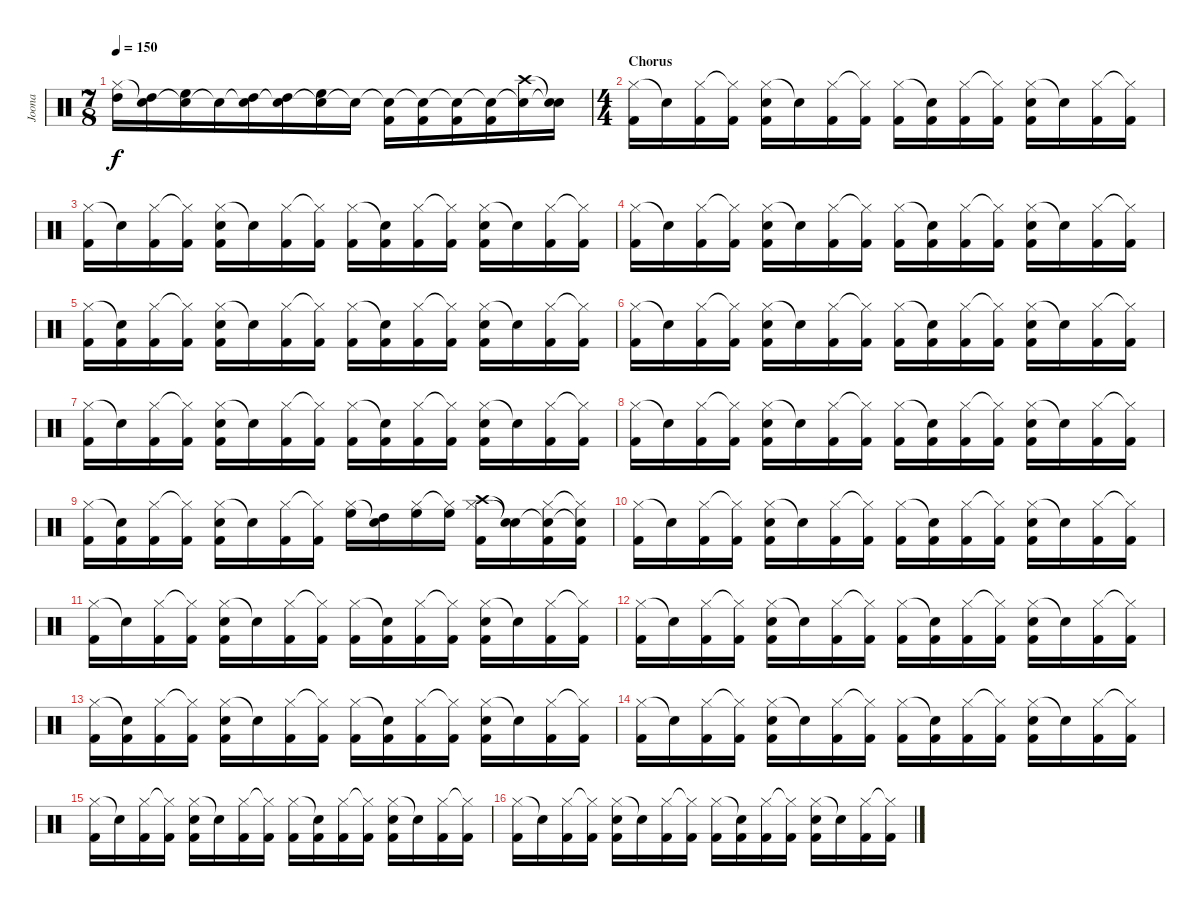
\track ("Joona" "Joona") {instrument percussion}
\staff {score}
\articulation defaults
\ts (7 8)
\tempo 150
\clef neutral
\ks c
("Hi-Hat (closed)" "High Tom (hit)").16{dy f} ("Snare (hit)"{t} "High Tom (hit)").16 ("Snare (hit)"{t} "High Floor Tom (hit)").16 "Snare (hit)"{t}.16 ("Snare (hit)"{t} "High Tom (hit)").16 ("Snare (hit)"{t} "High Tom (hit)").16 ("Snare (hit)"{t} "High Floor Tom (hit)").16 "Snare (hit)"{t}.16 ("Snare (hit)"{t} "Kick (hit) 2").16 ("Snare (hit)"{t} "Kick (hit) 2").16 ("Snare (hit)"{t} "Kick (hit) 2").16 ("Snare (hit)"{t} "Kick (hit) 2").16 ("Snare (hit)"{t} "Crash high (hit)").16 ("Snare (hit)"{t} "Snare (hit)"{t}).16 |
\ts (4 4)
\section ("" "Chorus")
("Hi-Hat (closed)" "Kick (hit) 2").16 "Snare (hit)"{t}.16 ("Hi-Hat (closed)" "Kick (hit) 2").16 ("Hi-Hat (closed)"{t} "Kick (hit) 2").16 ("Hi-Hat (closed)" "Kick (hit) 2" "Snare (hit) 2").16 "Snare (hit)"{t}.16 ("Hi-Hat (closed)" "Kick (hit) 2").16 ("Hi-Hat (closed)"{t} "Kick (hit) 2").16 ("Hi-Hat (closed)" "Kick (hit) 2").16 ("Snare (hit)"{t} "Kick (hit) 2").16 ("Hi-Hat (closed)" "Kick (hit) 2").16 ("Hi-Hat (closed)"{t} "Kick (hit) 2").16 ("Hi-Hat (closed)" "Kick (hit) 2" "Snare (hit) 2").16 "Snare (hit)"{t}.16 ("Hi-Hat (closed)" "Kick (hit) 2").16 ("Hi-Hat (closed)"{t} "Kick (hit) 2").16 |
("Hi-Hat (closed)" "Kick (hit) 2").16 "Snare (hit)"{t}.16 ("Hi-Hat (closed)" "Kick (hit) 2").16 ("Hi-Hat (closed)"{t} "Kick (hit) 2").16 ("Hi-Hat (closed)" "Kick (hit) 2" "Snare (hit) 2").16 "Snare (hit)"{t}.16 ("Hi-Hat (closed)" "Kick (hit) 2").16 ("Hi-Hat (closed)"{t} "Kick (hit) 2").16 ("Hi-Hat (closed)" "Kick (hit) 2").16 ("Snare (hit)"{t} "Kick (hit) 2").16 ("Hi-Hat (closed)" "Kick (hit) 2").16 ("Hi-Hat (closed)"{t} "Kick (hit) 2").16 ("Hi-Hat (closed)" "Kick (hit) 2" "Snare (hit) 2").16 "Snare (hit)"{t}.16 ("Hi-Hat (closed)" "Kick (hit) 2").16 ("Hi-Hat (closed)"{t} "Kick (hit) 2").16 |
("Hi-Hat (closed)" "Kick (hit) 2").16 "Snare (hit)"{t}.16 ("Hi-Hat (closed)" "Kick (hit) 2").16 ("Hi-Hat (closed)"{t} "Kick (hit) 2").16 ("Hi-Hat (closed)" "Kick (hit) 2" "Snare (hit) 2").16 "Snare (hit)"{t}.16 ("Hi-Hat (closed)" "Kick (hit) 2").16 ("Hi-Hat (closed)"{t} "Kick (hit) 2").16 ("Hi-Hat (closed)" "Kick (hit) 2").16 ("Snare (hit)"{t} "Kick (hit) 2").16 ("Hi-Hat (closed)" "Kick (hit) 2").16 ("Hi-Hat (closed)"{t} "Kick (hit) 2").16 ("Hi-Hat (closed)" "Kick (hit) 2" "Snare (hit) 2").16 "Snare (hit)"{t}.16 ("Hi-Hat (closed)" "Kick (hit) 2").16 ("Hi-Hat (closed)"{t} "Kick (hit) 2").16 |
("Hi-Hat (closed)" "Kick (hit) 2").16 ("Snare (hit)"{t} "Kick (hit) 2").16 ("Hi-Hat (closed)" "Kick (hit) 2").16 ("Hi-Hat (closed)"{t} "Kick (hit) 2").16 ("Hi-Hat (closed)" "Kick (hit) 2" "Snare (hit) 2").16 "Snare (hit)"{t}.16 ("Hi-Hat (closed)" "Kick (hit) 2").16 ("Hi-Hat (closed)"{t} "Kick (hit) 2").16 ("Hi-Hat (closed)" "Kick (hit) 2").16 ("Snare (hit)"{t} "Kick (hit) 2").16 ("Hi-Hat (closed)" "Kick (hit) 2").16 ("Hi-Hat (closed)"{t} "Kick (hit) 2").16 ("Hi-Hat (closed)" "Kick (hit) 2" "Snare (hit) 2").16 "Snare (hit)"{t}.16 ("Hi-Hat (closed)" "Kick (hit) 2").16 ("Hi-Hat (closed)"{t} "Kick (hit) 2").16 |
("Hi-Hat (closed)" "Kick (hit) 2").16 "Snare (hit)"{t}.16 ("Hi-Hat (closed)" "Kick (hit) 2").16 ("Hi-Hat (closed)"{t} "Kick (hit) 2").16 ("Hi-Hat (closed)" "Kick (hit) 2" "Snare (hit) 2").16 "Snare (hit)"{t}.16 ("Hi-Hat (closed)" "Kick (hit) 2").16 ("Hi-Hat (closed)"{t} "Kick (hit) 2").16 ("Hi-Hat (closed)" "Kick (hit) 2").16 ("Snare (hit)"{t} "Kick (hit) 2").16 ("Hi-Hat (closed)" "Kick (hit) 2").16 ("Hi-Hat (closed)"{t} "Kick (hit) 2").16 ("Hi-Hat (closed)" "Kick (hit) 2" "Snare (hit) 2").16 "Snare (hit)"{t}.16 ("Hi-Hat (closed)" "Kick (hit) 2").16 ("Hi-Hat (closed)"{t} "Kick (hit) 2").16 |
("Hi-Hat (closed)" "Kick (hit) 2").16 "Snare (hit)"{t}.16 ("Hi-Hat (closed)" "Kick (hit) 2").16 ("Hi-Hat (closed)"{t} "Kick (hit) 2").16 ("Hi-Hat (closed)" "Kick (hit) 2" "Snare (hit) 2").16 "Snare (hit)"{t}.16 ("Hi-Hat (closed)" "Kick (hit) 2").16 ("Hi-Hat (closed)"{t} "Kick (hit) 2").16 ("Hi-Hat (closed)" "Kick (hit) 2").16 ("Snare (hit)"{t} "Kick (hit) 2").16 ("Hi-Hat (closed)" "Kick (hit) 2").16 ("Hi-Hat (closed)"{t} "Kick (hit) 2").16 ("Hi-Hat (closed)" "Kick (hit) 2" "Snare (hit) 2").16 "Snare (hit)"{t}.16 ("Hi-Hat (closed)" "Kick (hit) 2").16 ("Hi-Hat (closed)"{t} "Kick (hit) 2").16 |
("Hi-Hat (closed)" "Kick (hit) 2").16 "Snare (hit)"{t}.16 ("Hi-Hat (closed)" "Kick (hit) 2").16 ("Hi-Hat (closed)"{t} "Kick (hit) 2").16 ("Hi-Hat (closed)" "Kick (hit) 2" "Snare (hit) 2").16 "Snare (hit)"{t}.16 ("Hi-Hat (closed)" "Kick (hit) 2").16 ("Hi-Hat (closed)"{t} "Kick (hit) 2").16 ("Hi-Hat (closed)" "Kick (hit) 2").16 ("Snare (hit)"{t} "Kick (hit) 2").16 ("Hi-Hat (closed)" "Kick (hit) 2").16 ("Hi-Hat (closed)"{t} "Kick (hit) 2").16 ("Hi-Hat (closed)" "Kick (hit) 2" "Snare (hit) 2").16 "Snare (hit)"{t}.16 ("Hi-Hat (closed)" "Kick (hit) 2").16 ("Hi-Hat (closed)"{t} "Kick (hit) 2").16 |
("Hi-Hat (closed)" "Kick (hit) 2").16 ("Snare (hit)"{t} "Kick (hit) 2").16 ("Hi-Hat (closed)" "Kick (hit) 2").16 ("Hi-Hat (closed)"{t} "Kick (hit) 2").16 ("Hi-Hat (closed)" "Kick (hit) 2" "Snare (hit) 2").16 "Snare (hit)"{t}.16 ("Hi-Hat (closed)" "Kick (hit) 2").16 ("Hi-Hat (closed)"{t} "Kick (hit) 2").16 ("Hi-Hat (closed)" "High Floor Tom (hit)").16 ("Snare (hit)"{t} "High Tom (hit)").16 ("Hi-Hat (closed)" "High Floor Tom (hit)").16 ("Hi-Hat (closed)"{t} "High Floor Tom (hit)").16 ("Hi-Hat (closed)" "Crash high (hit)" "Kick (hit) 2").16 ("Snare (hit)"{t} "Snare (hit)"{t}).16 ("Hi-Hat (closed)" "Snare (hit)"{t} "Kick (hit) 2").16 ("Hi-Hat (closed)"{t} "Snare (hit)"{t} "Kick (hit) 2").16 |
("Hi-Hat (closed)" "Kick (hit) 2").16 "Snare (hit)"{t}.16 ("Hi-Hat (closed)" "Kick (hit) 2").16 ("Hi-Hat (closed)"{t} "Kick (hit) 2").16 ("Hi-Hat (closed)" "Kick (hit) 2" "Snare (hit) 2").16 "Snare (hit)"{t}.16 ("Hi-Hat (closed)" "Kick (hit) 2").16 ("Hi-Hat (closed)"{t} "Kick (hit) 2").16 ("Hi-Hat (closed)" "Kick (hit) 2").16 ("Snare (hit)"{t} "Kick (hit) 2").16 ("Hi-Hat (closed)" "Kick (hit) 2").16 ("Hi-Hat (closed)"{t} "Kick (hit) 2").16 ("Hi-Hat (closed)" "Kick (hit) 2" "Snare (hit) 2").16 "Snare (hit)"{t}.16 ("Hi-Hat (closed)" "Kick (hit) 2").16 ("Hi-Hat (closed)"{t} "Kick (hit) 2").16 |
("Hi-Hat (closed)" "Kick (hit) 2").16 "Snare (hit)"{t}.16 ("Hi-Hat (closed)" "Kick (hit) 2").16 ("Hi-Hat (closed)"{t} "Kick (hit) 2").16 ("Hi-Hat (closed)" "Kick (hit) 2" "Snare (hit) 2").16 "Snare (hit)"{t}.16 ("Hi-Hat (closed)" "Kick (hit) 2").16 ("Hi-Hat (closed)"{t} "Kick (hit) 2").16 ("Hi-Hat (closed)" "Kick (hit) 2").16 ("Snare (hit)"{t} "Kick (hit) 2").16 ("Hi-Hat (closed)" "Kick (hit) 2").16 ("Hi-Hat (closed)"{t} "Kick (hit) 2").16 ("Hi-Hat (closed)" "Kick (hit) 2" "Snare (hit) 2").16 "Snare (hit)"{t}.16 ("Hi-Hat (closed)" "Kick (hit) 2").16 ("Hi-Hat (closed)"{t} "Kick (hit) 2").16 |
("Hi-Hat (closed)" "Kick (hit) 2").16 "Snare (hit)"{t}.16 ("Hi-Hat (closed)" "Kick (hit) 2").16 ("Hi-Hat (closed)"{t} "Kick (hit) 2").16 ("Hi-Hat (closed)" "Kick (hit) 2" "Snare (hit) 2").16 "Snare (hit)"{t}.16 ("Hi-Hat (closed)" "Kick (hit) 2").16 ("Hi-Hat (closed)"{t} "Kick (hit) 2").16 ("Hi-Hat (closed)" "Kick (hit) 2").16 ("Snare (hit)"{t} "Kick (hit) 2").16 ("Hi-Hat (closed)" "Kick (hit) 2").16 ("Hi-Hat (closed)"{t} "Kick (hit) 2").16 ("Hi-Hat (closed)" "Kick (hit) 2" "Snare (hit) 2").16 "Snare (hit)"{t}.16 ("Hi-Hat (closed)" "Kick (hit) 2").16 ("Hi-Hat (closed)"{t} "Kick (hit) 2").16 |
("Hi-Hat (closed)" "Kick (hit) 2").16 ("Snare (hit)"{t} "Kick (hit) 2").16 ("Hi-Hat (closed)" "Kick (hit) 2").16 ("Hi-Hat (closed)"{t} "Kick (hit) 2").16 ("Hi-Hat (closed)" "Kick (hit) 2" "Snare (hit) 2").16 "Snare (hit)"{t}.16 ("Hi-Hat (closed)" "Kick (hit) 2").16 ("Hi-Hat (closed)"{t} "Kick (hit) 2").16 ("Hi-Hat (closed)" "Kick (hit) 2").16 ("Snare (hit)"{t} "Kick (hit) 2").16 ("Hi-Hat (closed)" "Kick (hit) 2").16 ("Hi-Hat (closed)"{t} "Kick (hit) 2").16 ("Hi-Hat (closed)" "Kick (hit) 2" "Snare (hit) 2").16 "Snare (hit)"{t}.16 ("Hi-Hat (closed)" "Kick (hit) 2").16 ("Hi-Hat (closed)"{t} "Kick (hit) 2").16 |
("Hi-Hat (closed)" "Kick (hit) 2").16 "Snare (hit)"{t}.16 ("Hi-Hat (closed)" "Kick (hit) 2").16 ("Hi-Hat (closed)"{t} "Kick (hit) 2").16 ("Hi-Hat (closed)" "Kick (hit) 2" "Snare (hit) 2").16 "Snare (hit)"{t}.16 ("Hi-Hat (closed)" "Kick (hit) 2").16 ("Hi-Hat (closed)"{t} "Kick (hit) 2").16 ("Hi-Hat (closed)" "Kick (hit) 2").16 ("Snare (hit)"{t} "Kick (hit) 2").16 ("Hi-Hat (closed)" "Kick (hit) 2").16 ("Hi-Hat (closed)"{t} "Kick (hit) 2").16 ("Hi-Hat (closed)" "Kick (hit) 2" "Snare (hit) 2").16 "Snare (hit)"{t}.16 ("Hi-Hat (closed)" "Kick (hit) 2").16 ("Hi-Hat (closed)"{t} "Kick (hit) 2").16 |
("Hi-Hat (closed)" "Kick (hit) 2").16 "Snare (hit)"{t}.16 ("Hi-Hat (closed)" "Kick (hit) 2").16 ("Hi-Hat (closed)"{t} "Kick (hit) 2").16 ("Hi-Hat (closed)" "Kick (hit) 2" "Snare (hit) 2").16 "Snare (hit)"{t}.16 ("Hi-Hat (closed)" "Kick (hit) 2").16 ("Hi-Hat (closed)"{t} "Kick (hit) 2").16 ("Hi-Hat (closed)" "Kick (hit) 2").16 ("Snare (hit)"{t} "Kick (hit) 2").16 ("Hi-Hat (closed)" "Kick (hit) 2").16 ("Hi-Hat (closed)"{t} "Kick (hit) 2").16 ("Hi-Hat (closed)" "Kick (hit) 2" "Snare (hit) 2").16 "Snare (hit)"{t}.16 ("Hi-Hat (closed)" "Kick (hit) 2").16 ("Hi-Hat (closed)"{t} "Kick (hit) 2").16 |
("Hi-Hat (closed)" "Kick (hit) 2").16 "Snare (hit)"{t}.16 ("Hi-Hat (closed)" "Kick (hit) 2").16 ("Hi-Hat (closed)"{t} "Kick (hit) 2").16 ("Hi-Hat (closed)" "Kick (hit) 2" "Snare (hit) 2").16 "Snare (hit)"{t}.16 ("Hi-Hat (closed)" "Kick (hit) 2").16 ("Hi-Hat (closed)"{t} "Kick (hit) 2").16 ("Hi-Hat (closed)" "Kick (hit) 2").16 ("Snare (hit)"{t} "Kick (hit) 2").16 ("Hi-Hat (closed)" "Kick (hit) 2").16 ("Hi-Hat (closed)"{t} "Kick (hit) 2").16 ("Hi-Hat (closed)" "Kick (hit) 2" "Snare (hit) 2").16 "Snare (hit)"{t}.16 ("Hi-Hat (closed)" "Kick (hit) 2").16 ("Hi-Hat (closed)"{t} "Kick (hit) 2").16
